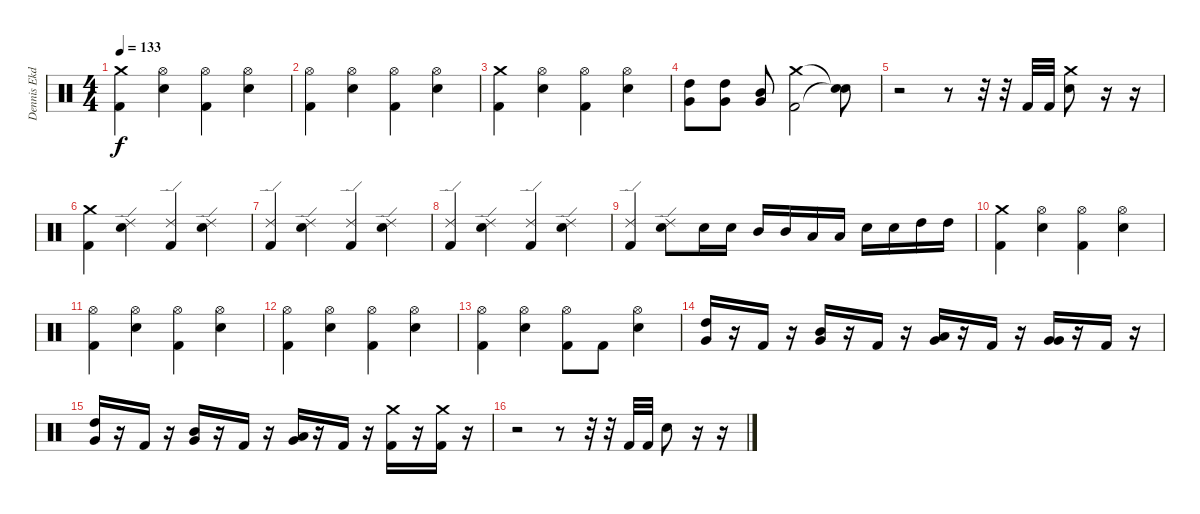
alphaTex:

\track ("Dennis Ekdahl" "Dennis Ekd") {instrument percussion}
\staff {score}
\articulation defaults
\ts (4 4)
\tempo 133
\clef neutral
\ks c
("Crash medium (hit)" "Kick (hit) 2").4{dy f} ("Hi-Hat (open)" "Snare (hit) 2").4 ("Hi-Hat (open)" "Kick (hit) 2").4 ("Hi-Hat (open)" "Snare (hit) 2").4 |
("Hi-Hat (open)" "Kick (hit) 2").4 ("Hi-Hat (open)" "Snare (hit) 2").4 ("Hi-Hat (open)" "Kick (hit) 2").4 ("Hi-Hat (open)" "Snare (hit) 2").4 |
("Crash medium (hit)" "Kick (hit) 2").4 ("Hi-Hat (open)" "Snare (hit) 2").4 ("Hi-Hat (open)" "Kick (hit) 2").4 ("Hi-Hat (open)" "Snare (hit) 2").4 |
("High Tom (hit)" "Very Low Tom (hit)").8 ("High Tom (hit)" "Very Low Tom (hit)").8 ("Mid Tom (hit)" "Very Low Tom (hit)").8 ("Crash medium (hit)" "Kick (hit) 2").2 ("Snare (hit)"{t} "Snare (hit)"{t}).8 |
r.2 r.8 r.32 r.32 "Kick (hit) 2".32 "Kick (hit) 2".32 ("Crash medium (hit)" "Snare (hit) 2").8 r.16 r.16 |
("Crash medium (hit)" "Kick (hit) 2").4 ("Ride (edge) 2" "Snare (hit) 2").4 ("Ride (edge) 2" "Kick (hit) 2").4 ("Ride (edge) 2" "Snare (hit) 2").4 |
("Ride (edge) 2" "Kick (hit) 2").4 ("Ride (edge) 2" "Snare (hit) 2").4 ("Ride (edge) 2" "Kick (hit) 2").4 ("Ride (edge) 2" "Snare (hit) 2").4 |
("Ride (edge) 2" "Kick (hit) 2").4 ("Ride (edge) 2" "Snare (hit) 2").4 ("Ride (edge) 2" "Kick (hit) 2").4 ("Ride (edge) 2" "Snare (hit) 2").4 |
("Ride (edge) 2" "Kick (hit) 2").4 ("Ride (edge) 2" "Snare (hit) 2").8 "Snare (hit) 2".16 "Snare (hit) 2".16 "Mid Tom (hit)".16 "Mid Tom (hit)".16 "Low Tom (hit)".16 "Low Tom (hit)".16 "Snare (hit) 2".16 "Snare (hit) 2".16 "High Tom (hit)".16 "High Tom (hit)".16 |
("Crash medium (hit)" "Kick (hit) 2").4 ("Hi-Hat (open)" "Snare (hit) 2").4 ("Hi-Hat (open)" "Kick (hit) 2").4 ("Hi-Hat (open)" "Snare (hit) 2").4 |
("Hi-Hat (open)" "Kick (hit) 2").4 ("Hi-Hat (open)" "Snare (hit) 2").4 ("Hi-Hat (open)" "Kick (hit) 2").4 ("Hi-Hat (open)" "Snare (hit) 2").4 |
("Hi-Hat (open)" "Kick (hit) 2").4 ("Hi-Hat (open)" "Snare (hit) 2").4 ("Hi-Hat (open)" "Kick (hit) 2").4 ("Hi-Hat (open)" "Snare (hit) 2").4 |
("Hi-Hat (open)" "Kick (hit) 2").4 ("Hi-Hat (open)" "Snare (hit) 2").4 ("Hi-Hat (open)" "Kick (hit) 2").8 "Kick (hit) 2".8 ("Hi-Hat (open)" "Snare (hit) 2").4 |
("High Tom (hit)" "Very Low Tom (hit)").16 r.16 "Kick (hit) 2".16 r.16 ("Mid Tom (hit)" "Very Low Tom (hit)").16 r.16 "Kick (hit) 2".16 r.16 ("Low Tom (hit)" "Very Low Tom (hit)").16 r.16 "Kick (hit) 2".16 r.16 ("Very Low Tom (hit)" "Very Low Tom (hit)").16 r.16 "Kick (hit) 2".16 r.16 |
("High Tom (hit)" "Very Low Tom (hit)").16 r.16 "Kick (hit) 2".16 r.16 ("Mid Tom (hit)" "Very Low Tom (hit)").16 r.16 "Kick (hit) 2".16 r.16 ("Low Tom (hit)" "Very Low Tom (hit)").16 r.16 "Kick (hit) 2".16 r.16 ("Crash medium (hit)" "Kick (hit) 2").16 r.16 ("Crash medium (hit)" "Kick (hit) 2").16 r.16 |
r.2 r.8 r.32 r.32 "Kick (hit) 2".32 "Kick (hit) 2".32 "Snare (hit) 2".8 r.16 r.16
